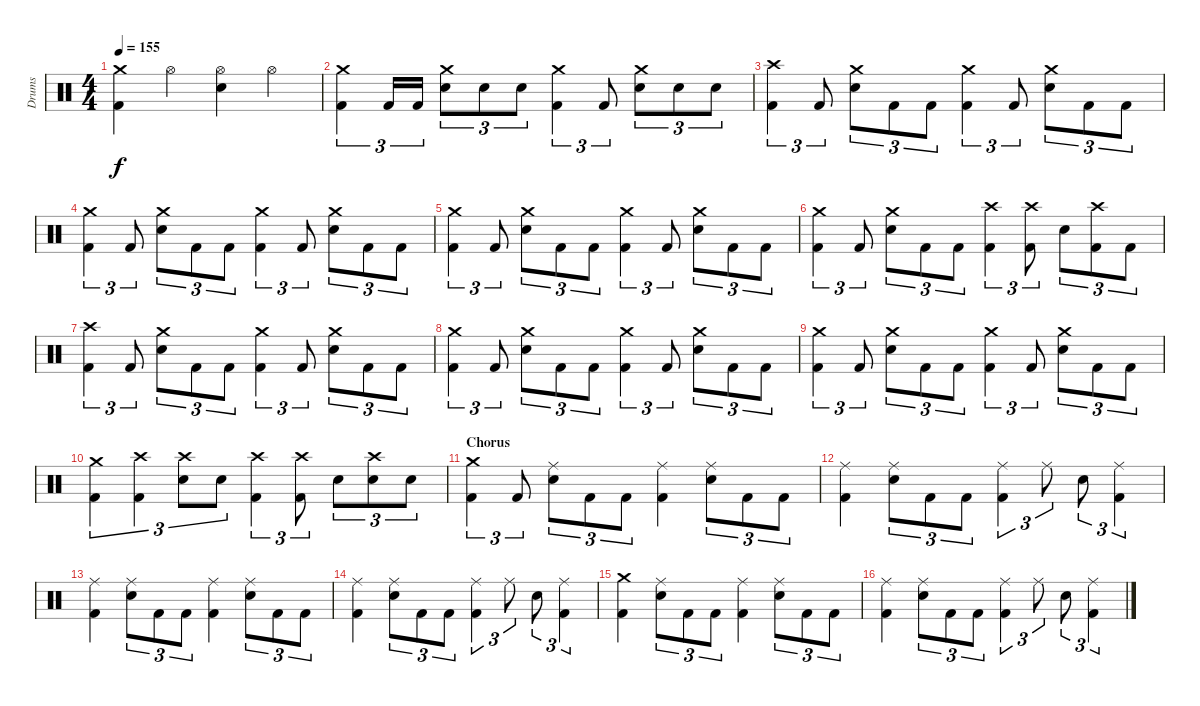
\track ("Drums" "Drums") {instrument percussion}
\staff {score}
\articulation defaults
\ts (4 4)
\tempo 155
\clef neutral
\ks c
("Kick (hit) 2" "Crash medium (hit)").4{dy f} "Hi-Hat (open)".4 ("Electric Snare (hit)" "Hi-Hat (open)").4 "Hi-Hat (open)".4 |
("Kick (hit) 2" "Crash medium (hit)").4{tu (3 2)} "Kick (hit) 2".16{tu (3 2)} "Kick (hit) 2".16{tu (3 2)} ("Electric Snare (hit)" "Crash medium (hit)").8{tu (3 2)} "Electric Snare (hit)".8{tu (3 2)} "Electric Snare (hit)".8{tu (3 2)} ("Kick (hit) 2" "Crash medium (hit)").4{tu (3 2)} "Kick (hit) 2".8{tu (3 2)} ("Electric Snare (hit)" "Crash medium (hit)").8{tu (3 2)} "Electric Snare (hit)".8{tu (3 2)} "Electric Snare (hit)".8{tu (3 2)} |
("Kick (hit) 2" "Crash high (hit)").4{tu (3 2)} "Kick (hit) 2".8{tu (3 2)} ("Electric Snare (hit)" "Crash medium (hit)").8{tu (3 2)} "Kick (hit) 2".8{tu (3 2)} "Kick (hit) 2".8{tu (3 2)} ("Kick (hit) 2" "Crash medium (hit)").4{tu (3 2)} "Kick (hit) 2".8{tu (3 2)} ("Electric Snare (hit)" "Crash medium (hit)").8{tu (3 2)} "Kick (hit) 2".8{tu (3 2)} "Kick (hit) 2".8{tu (3 2)} |
("Kick (hit) 2" "Crash medium (hit)").4{tu (3 2)} "Kick (hit) 2".8{tu (3 2)} ("Electric Snare (hit)" "Crash medium (hit)").8{tu (3 2)} "Kick (hit) 2".8{tu (3 2)} "Kick (hit) 2".8{tu (3 2)} ("Kick (hit) 2" "Crash medium (hit)").4{tu (3 2)} "Kick (hit) 2".8{tu (3 2)} ("Electric Snare (hit)" "Crash medium (hit)").8{tu (3 2)} "Kick (hit) 2".8{tu (3 2)} "Kick (hit) 2".8{tu (3 2)} |
("Kick (hit) 2" "Crash medium (hit)").4{tu (3 2)} "Kick (hit) 2".8{tu (3 2)} ("Electric Snare (hit)" "Crash medium (hit)").8{tu (3 2)} "Kick (hit) 2".8{tu (3 2)} "Kick (hit) 2".8{tu (3 2)} ("Kick (hit) 2" "Crash medium (hit)").4{tu (3 2)} "Kick (hit) 2".8{tu (3 2)} ("Electric Snare (hit)" "Crash medium (hit)").8{tu (3 2)} "Kick (hit) 2".8{tu (3 2)} "Kick (hit) 2".8{tu (3 2)} |
("Kick (hit) 2" "Crash medium (hit)").4{tu (3 2)} "Kick (hit) 2".8{tu (3 2)} ("Electric Snare (hit)" "Crash medium (hit)").8{tu (3 2)} "Kick (hit) 2".8{tu (3 2)} "Kick (hit) 2".8{tu (3 2)} ("Kick (hit) 2" "Crash high (hit)").4{tu (3 2)} ("Kick (hit) 2" "Crash high (hit)").8{tu (3 2)} "Electric Snare (hit)".8{tu (3 2)} ("Kick (hit) 2" "Crash high (hit)").8{tu (3 2)} "Kick (hit) 2".8{tu (3 2)} |
("Kick (hit) 2" "Crash high (hit)").4{tu (3 2)} "Kick (hit) 2".8{tu (3 2)} ("Electric Snare (hit)" "Crash medium (hit)").8{tu (3 2)} "Kick (hit) 2".8{tu (3 2)} "Kick (hit) 2".8{tu (3 2)} ("Kick (hit) 2" "Crash medium (hit)").4{tu (3 2)} "Kick (hit) 2".8{tu (3 2)} ("Electric Snare (hit)" "Crash medium (hit)").8{tu (3 2)} "Kick (hit) 2".8{tu (3 2)} "Kick (hit) 2".8{tu (3 2)} |
("Kick (hit) 2" "Crash medium (hit)").4{tu (3 2)} "Kick (hit) 2".8{tu (3 2)} ("Electric Snare (hit)" "Crash medium (hit)").8{tu (3 2)} "Kick (hit) 2".8{tu (3 2)} "Kick (hit) 2".8{tu (3 2)} ("Kick (hit) 2" "Crash medium (hit)").4{tu (3 2)} "Kick (hit) 2".8{tu (3 2)} ("Electric Snare (hit)" "Crash medium (hit)").8{tu (3 2)} "Kick (hit) 2".8{tu (3 2)} "Kick (hit) 2".8{tu (3 2)} |
("Kick (hit) 2" "Crash medium (hit)").4{tu (3 2)} "Kick (hit) 2".8{tu (3 2)} ("Electric Snare (hit)" "Crash medium (hit)").8{tu (3 2)} "Kick (hit) 2".8{tu (3 2)} "Kick (hit) 2".8{tu (3 2)} ("Kick (hit) 2" "Crash medium (hit)").4{tu (3 2)} "Kick (hit) 2".8{tu (3 2)} ("Electric Snare (hit)" "Crash medium (hit)").8{tu (3 2)} "Kick (hit) 2".8{tu (3 2)} "Kick (hit) 2".8{tu (3 2)} |
("Kick (hit) 2" "Crash medium (hit)").4{tu (3 2)} ("Kick (hit) 2" "Crash high (hit)").4{tu (3 2)} ("Electric Snare (hit)" "Crash high (hit)").8{tu (3 2)} "Electric Snare (hit)".8{tu (3 2)} ("Kick (hit) 2" "Crash high (hit)").4{tu (3 2)} ("Kick (hit) 2" "Crash high (hit)").8{tu (3 2)} "Electric Snare (hit)".8{tu (3 2)} ("Electric Snare (hit)" "Crash high (hit)").8{tu (3 2)} "Electric Snare (hit)".8{tu (3 2)} |
\section ("" "Chorus")
("Kick (hit) 2" "Crash medium (hit)").4{tu (3 2)} "Kick (hit) 2".8{tu (3 2)} ("Electric Snare (hit)" "Ride (middle)").8{tu (3 2)} "Kick (hit) 2".8{tu (3 2)} "Kick (hit) 2".8{tu (3 2)} ("Kick (hit) 2" "Ride (middle)").4 ("Electric Snare (hit)" "Ride (middle)").8{tu (3 2)} "Kick (hit) 2".8{tu (3 2)} "Kick (hit) 2".8{tu (3 2)} |
("Kick (hit) 2" "Ride (middle)").4 ("Electric Snare (hit)" "Ride (middle)").8{tu (3 2)} "Kick (hit) 2".8{tu (3 2)} "Kick (hit) 2".8{tu (3 2)} ("Kick (hit) 2" "Ride (middle)").4{tu (3 2)} "Ride (middle)".8{tu (3 2)} "Electric Snare (hit)".8{tu (3 2)} ("Kick (hit) 2" "Ride (middle)").4{tu (3 2)} |
("Kick (hit) 2" "Ride (middle)").4 ("Electric Snare (hit)" "Ride (middle)").8{tu (3 2)} "Kick (hit) 2".8{tu (3 2)} "Kick (hit) 2".8{tu (3 2)} ("Kick (hit) 2" "Ride (middle)").4 ("Electric Snare (hit)" "Ride (middle)").8{tu (3 2)} "Kick (hit) 2".8{tu (3 2)} "Kick (hit) 2".8{tu (3 2)} |
("Kick (hit) 2" "Ride (middle)").4 ("Electric Snare (hit)" "Ride (middle)").8{tu (3 2)} "Kick (hit) 2".8{tu (3 2)} "Kick (hit) 2".8{tu (3 2)} ("Kick (hit) 2" "Ride (middle)").4{tu (3 2)} "Ride (middle)".8{tu (3 2)} "Electric Snare (hit)".8{tu (3 2)} ("Kick (hit) 2" "Ride (middle)").4{tu (3 2)} |
("Kick (hit) 2" "Crash medium (hit)").4 ("Electric Snare (hit)" "Ride (middle)").8{tu (3 2)} "Kick (hit) 2".8{tu (3 2)} "Kick (hit) 2".8{tu (3 2)} ("Kick (hit) 2" "Ride (middle)").4 ("Electric Snare (hit)" "Ride (middle)").8{tu (3 2)} "Kick (hit) 2".8{tu (3 2)} "Kick (hit) 2".8{tu (3 2)} |
("Kick (hit) 2" "Ride (middle)").4 ("Electric Snare (hit)" "Ride (middle)").8{tu (3 2)} "Kick (hit) 2".8{tu (3 2)} "Kick (hit) 2".8{tu (3 2)} ("Kick (hit) 2" "Ride (middle)").4{tu (3 2)} "Ride (middle)".8{tu (3 2)} "Electric Snare (hit)".8{tu (3 2)} ("Kick (hit) 2" "Ride (middle)").4{tu (3 2)}
